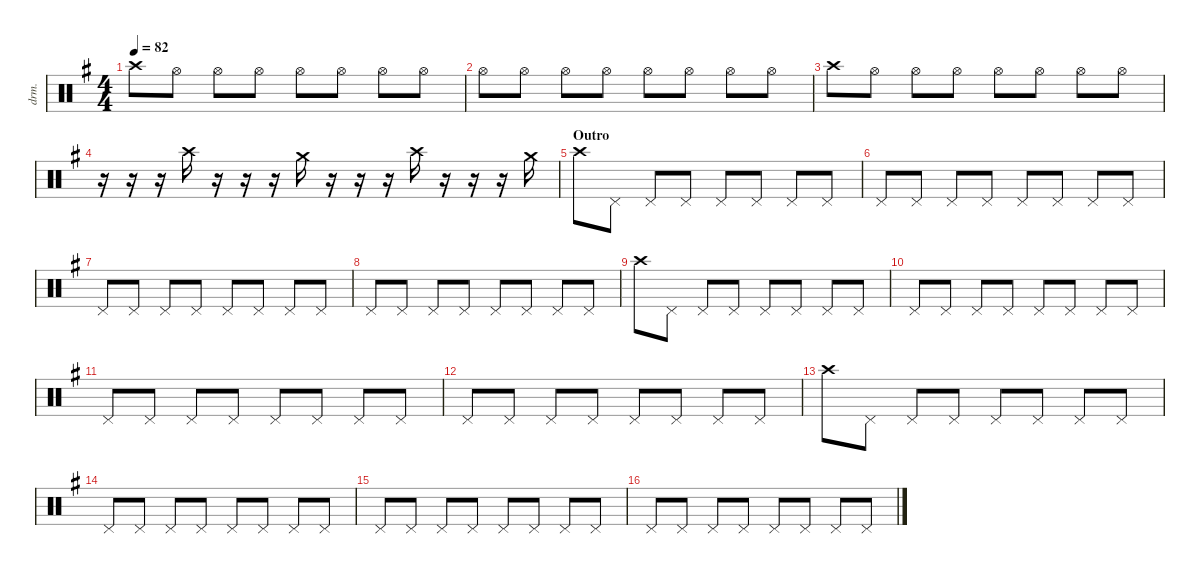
\defaultSystemsLayout 2
\hideDynamics
\bracketExtendMode nobrackets
\otherSystemsTrackNameOrientation horizontal
\track ("Drums (Cymbals)" "drm.") {instrument percussion}
\staff {score}
\articulation defaults
\ts (4 4)
\tempo 82
\clef neutral
\ks g "Crash high (hit)".8{dy f} "Hi-Hat (open)".8 "Hi-Hat (open)".8 "Hi-Hat (open)".8 "Hi-Hat (open)".8 "Hi-Hat (open)".8 "Hi-Hat (open)".8 "Hi-Hat (open)".8
|
"Hi-Hat (open)".8 "Hi-Hat (open)".8 "Hi-Hat (open)".8 "Hi-Hat (open)".8 "Hi-Hat (open)".8 "Hi-Hat (open)".8 "Hi-Hat (open)".8 "Hi-Hat (open)".8 |
"Crash high (hit)".8 "Hi-Hat (open)".8 "Hi-Hat (open)".8 "Hi-Hat (open)".8 "Hi-Hat (open)".8 "Hi-Hat (open)".8 "Hi-Hat (open)".8 "Hi-Hat (open)".8 |
r.16 r.16 r.16 "Crash high (hit)".16{dy mf} r.16 r.16 r.16 "Crash medium (hit)".16 r.16 r.16 r.16 "Crash high (hit)".16 r.16 r.16 r.16 "Crash medium (hit)".16 |
\beaming (8 2 2 2 2)
\section ("" "Outro")
"Crash high (hit)".8{dy f} "Pedal Hi-Hat (hit)".8 "Pedal Hi-Hat (hit)".8 "Pedal Hi-Hat (hit)".8 "Pedal Hi-Hat (hit)".8 "Pedal Hi-Hat (hit)".8 "Pedal Hi-Hat (hit)".8 "Pedal Hi-Hat (hit)".8 |
"Pedal Hi-Hat (hit)".8 "Pedal Hi-Hat (hit)".8 "Pedal Hi-Hat (hit)".8 "Pedal Hi-Hat (hit)".8 "Pedal Hi-Hat (hit)".8 "Pedal Hi-Hat (hit)".8 "Pedal Hi-Hat (hit)".8 "Pedal Hi-Hat (hit)".8 |
"Pedal Hi-Hat (hit)".8 "Pedal Hi-Hat (hit)".8 "Pedal Hi-Hat (hit)".8 "Pedal Hi-Hat (hit)".8 "Pedal Hi-Hat (hit)".8 "Pedal Hi-Hat (hit)".8 "Pedal Hi-Hat (hit)".8 "Pedal Hi-Hat (hit)".8 |
"Pedal Hi-Hat (hit)".8 "Pedal Hi-Hat (hit)".8 "Pedal Hi-Hat (hit)".8 "Pedal Hi-Hat (hit)".8 "Pedal Hi-Hat (hit)".8 "Pedal Hi-Hat (hit)".8 "Pedal Hi-Hat (hit)".8 "Pedal Hi-Hat (hit)".8 |
"Crash high (hit)".8 "Pedal Hi-Hat (hit)".8 "Pedal Hi-Hat (hit)".8 "Pedal Hi-Hat (hit)".8 "Pedal Hi-Hat (hit)".8 "Pedal Hi-Hat (hit)".8 "Pedal Hi-Hat (hit)".8 "Pedal Hi-Hat (hit)".8 |
"Pedal Hi-Hat (hit)".8 "Pedal Hi-Hat (hit)".8 "Pedal Hi-Hat (hit)".8 "Pedal Hi-Hat (hit)".8 "Pedal Hi-Hat (hit)".8 "Pedal Hi-Hat (hit)".8 "Pedal Hi-Hat (hit)".8 "Pedal Hi-Hat (hit)".8 |
"Pedal Hi-Hat (hit)".8 "Pedal Hi-Hat (hit)".8 "Pedal Hi-Hat (hit)".8 "Pedal Hi-Hat (hit)".8 "Pedal Hi-Hat (hit)".8 "Pedal Hi-Hat (hit)".8 "Pedal Hi-Hat (hit)".8 "Pedal Hi-Hat (hit)".8 |
"Pedal Hi-Hat (hit)".8 "Pedal Hi-Hat (hit)".8 "Pedal Hi-Hat (hit)".8 "Pedal Hi-Hat (hit)".8 "Pedal Hi-Hat (hit)".8 "Pedal Hi-Hat (hit)".8 "Pedal Hi-Hat (hit)".8 "Pedal Hi-Hat (hit)".8 |
"Crash high (hit)".8 "Pedal Hi-Hat (hit)".8 "Pedal Hi-Hat (hit)".8 "Pedal Hi-Hat (hit)".8 "Pedal Hi-Hat (hit)".8 "Pedal Hi-Hat (hit)".8 "Pedal Hi-Hat (hit)".8 "Pedal Hi-Hat (hit)".8 |
"Pedal Hi-Hat (hit)".8 "Pedal Hi-Hat (hit)".8 "Pedal Hi-Hat (hit)".8 "Pedal Hi-Hat (hit)".8 "Pedal Hi-Hat (hit)".8 "Pedal Hi-Hat (hit)".8 "Pedal Hi-Hat (hit)".8 "Pedal Hi-Hat (hit)".8 |
"Pedal Hi-Hat (hit)".8 "Pedal Hi-Hat (hit)".8 "Pedal Hi-Hat (hit)".8 "Pedal Hi-Hat (hit)".8 "Pedal Hi-Hat (hit)".8 "Pedal Hi-Hat (hit)".8 "Pedal Hi-Hat (hit)".8 "Pedal Hi-Hat (hit)".8 |
"Pedal Hi-Hat (hit)".8 "Pedal Hi-Hat (hit)".8 "Pedal Hi-Hat (hit)".8 "Pedal Hi-Hat (hit)".8 "Pedal Hi-Hat (hit)".8 "Pedal Hi-Hat (hit)".8 "Pedal Hi-Hat (hit)".8 "Pedal Hi-Hat (hit)".8
